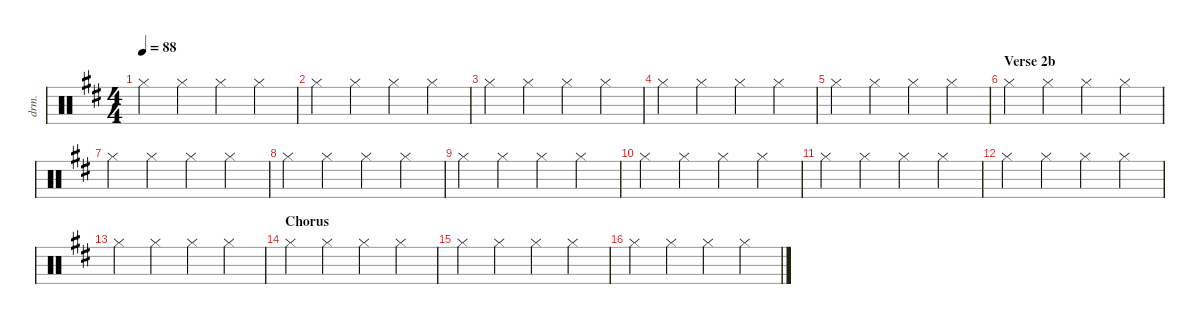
\defaultSystemsLayout 4
\hideDynamics
\bracketExtendMode nobrackets
\otherSystemsTrackNameOrientation horizontal
\track ("Drumkit" "drm.") {instrument percussion}
\staff {score}
\articulation defaults
\ts (4 4)
\tempo 88
\clef neutral
\ks d "Hi-Hat (closed)"{acc forcenatural}.4{dy mf beam Down} "Hi-Hat (closed)"{acc forcenatural}.4{beam Down} "Hi-Hat (closed)"{acc forcenatural}.4{beam Down} "Hi-Hat (closed)"{acc forcenatural}.4{beam Down}
|
"Hi-Hat (closed)"{acc forcenatural}.4{beam Down} "Hi-Hat (closed)"{acc forcenatural}.4{beam Down} "Hi-Hat (closed)"{acc forcenatural}.4{beam Down} "Hi-Hat (closed)"{acc forcenatural}.4{beam Down} |
"Hi-Hat (closed)"{acc forcenatural}.4{beam Down} "Hi-Hat (closed)"{acc forcenatural}.4{beam Down} "Hi-Hat (closed)"{acc forcenatural}.4{beam Down} "Hi-Hat (closed)"{acc forcenatural}.4{beam Down} |
"Hi-Hat (closed)"{acc forcenatural}.4{beam Down} "Hi-Hat (closed)"{acc forcenatural}.4{beam Down} "Hi-Hat (closed)"{acc forcenatural}.4{beam Down} "Hi-Hat (closed)"{acc forcenatural}.4{beam Down} |
"Hi-Hat (closed)"{acc forcenatural}.4{beam Down} "Hi-Hat (closed)"{acc forcenatural}.4{beam Down} "Hi-Hat (closed)"{acc forcenatural}.4{beam Down} "Hi-Hat (closed)"{acc forcenatural}.4{beam Down} |
\section ("" "Verse 2b")
"Hi-Hat (closed)"{acc forcenatural}.4{beam Down} "Hi-Hat (closed)"{acc forcenatural}.4{beam Down} "Hi-Hat (closed)"{acc forcenatural}.4{beam Down} "Hi-Hat (closed)"{acc forcenatural}.4{beam Down} |
"Hi-Hat (closed)"{acc forcenatural}.4{beam Down} "Hi-Hat (closed)"{acc forcenatural}.4{beam Down} "Hi-Hat (closed)"{acc forcenatural}.4{beam Down} "Hi-Hat (closed)"{acc forcenatural}.4{beam Down} |
"Hi-Hat (closed)"{acc forcenatural}.4{beam Down} "Hi-Hat (closed)"{acc forcenatural}.4{beam Down} "Hi-Hat (closed)"{acc forcenatural}.4{beam Down} "Hi-Hat (closed)"{acc forcenatural}.4{beam Down} |
"Hi-Hat (closed)"{acc forcenatural}.4{beam Down} "Hi-Hat (closed)"{acc forcenatural}.4{beam Down} "Hi-Hat (closed)"{acc forcenatural}.4{beam Down} "Hi-Hat (closed)"{acc forcenatural}.4{beam Down} |
"Hi-Hat (closed)"{acc forcenatural}.4{beam Down} "Hi-Hat (closed)"{acc forcenatural}.4{beam Down} "Hi-Hat (closed)"{acc forcenatural}.4{beam Down} "Hi-Hat (closed)"{acc forcenatural}.4{beam Down} |
"Hi-Hat (closed)"{acc forcenatural}.4{beam Down} "Hi-Hat (closed)"{acc forcenatural}.4{beam Down} "Hi-Hat (closed)"{acc forcenatural}.4{beam Down} "Hi-Hat (closed)"{acc forcenatural}.4{beam Down} |
"Hi-Hat (closed)"{acc forcenatural}.4{beam Down} "Hi-Hat (closed)"{acc forcenatural}.4{beam Down} "Hi-Hat (closed)"{acc forcenatural}.4{beam Down} "Hi-Hat (closed)"{acc forcenatural}.4{beam Down} |
"Hi-Hat (closed)"{acc forcenatural}.4{beam Down} "Hi-Hat (closed)"{acc forcenatural}.4{beam Down} "Hi-Hat (closed)"{acc forcenatural}.4{beam Down} "Hi-Hat (closed)"{acc forcenatural}.4{beam Down} |
\section ("" "Chorus")
"Hi-Hat (closed)"{acc forcenatural}.4{beam Down} "Hi-Hat (closed)"{acc forcenatural}.4{beam Down} "Hi-Hat (closed)"{acc forcenatural}.4{beam Down} "Hi-Hat (closed)"{acc forcenatural}.4{beam Down} |
"Hi-Hat (closed)"{acc forcenatural}.4{beam Down} "Hi-Hat (closed)"{acc forcenatural}.4{beam Down} "Hi-Hat (closed)"{acc forcenatural}.4{beam Down} "Hi-Hat (closed)"{acc forcenatural}.4{beam Down} |
"Hi-Hat (closed)"{acc forcenatural}.4{beam Down} "Hi-Hat (closed)"{acc forcenatural}.4{beam Down} "Hi-Hat (closed)"{acc forcenatural}.4{beam Down} "Hi-Hat (closed)"{acc forcenatural}.4{beam Down}
